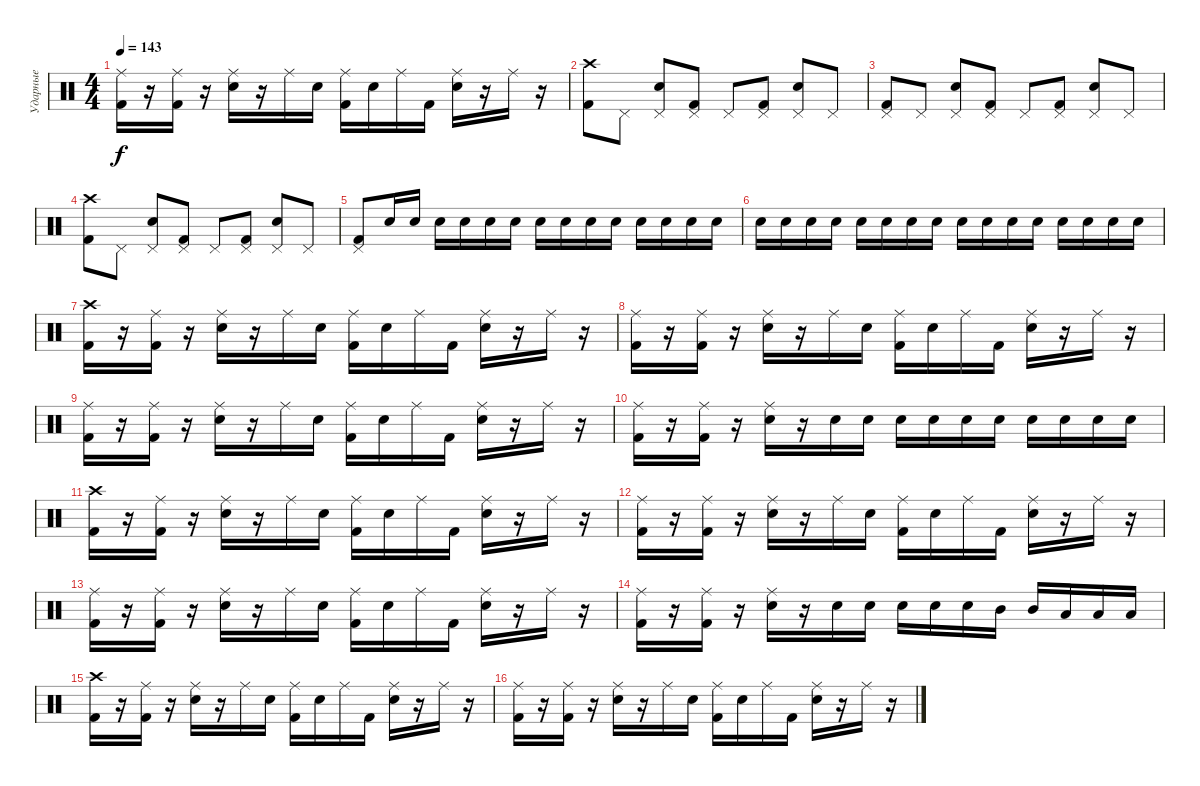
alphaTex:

\track ("Ударные" "Ударные") {instrument percussion}
\staff {score}
\articulation defaults
\ts (4 4)
\tempo 143
\clef neutral
\ks c
("Kick (hit) 2" "Ride (middle)").16{dy f} r.16 ("Kick (hit) 2" "Ride (middle)").16 r.16 ("Electric Snare (hit)" "Ride (middle)").16 r.16 "Ride (middle)".16 "Electric Snare (hit)".16 ("Kick (hit) 2" "Ride (middle)").16 "Electric Snare (hit)".16 "Ride (middle)".16 "Kick (hit) 2".16 ("Electric Snare (hit)" "Ride (middle)").16 r.16 "Ride (middle)".16 r.16 |
("Kick (hit) 2" "Crash high (hit)").8 "Pedal Hi-Hat (hit)".8 ("Electric Snare (hit)" "Pedal Hi-Hat (hit)").8 ("Kick (hit) 2" "Pedal Hi-Hat (hit)").8 "Pedal Hi-Hat (hit)".8 ("Kick (hit) 2" "Pedal Hi-Hat (hit)").8 ("Electric Snare (hit)" "Pedal Hi-Hat (hit)").8 "Pedal Hi-Hat (hit)".8 |
("Kick (hit) 2" "Pedal Hi-Hat (hit)").8 "Pedal Hi-Hat (hit)".8 ("Electric Snare (hit)" "Pedal Hi-Hat (hit)").8 ("Kick (hit) 2" "Pedal Hi-Hat (hit)").8 "Pedal Hi-Hat (hit)".8 ("Kick (hit) 2" "Pedal Hi-Hat (hit)").8 ("Electric Snare (hit)" "Pedal Hi-Hat (hit)").8 "Pedal Hi-Hat (hit)".8 |
("Kick (hit) 2" "Crash high (hit)").8 "Pedal Hi-Hat (hit)".8 ("Electric Snare (hit)" "Pedal Hi-Hat (hit)").8 ("Kick (hit) 2" "Pedal Hi-Hat (hit)").8 "Pedal Hi-Hat (hit)".8 ("Kick (hit) 2" "Pedal Hi-Hat (hit)").8 ("Electric Snare (hit)" "Pedal Hi-Hat (hit)").8 "Pedal Hi-Hat (hit)".8 |
("Kick (hit) 2" "Pedal Hi-Hat (hit)").8 "Electric Snare (hit)".16 "Electric Snare (hit)".16 "Electric Snare (hit)".16 "Electric Snare (hit)".16 "Electric Snare (hit)".16 "Electric Snare (hit)".16 "Electric Snare (hit)".16 "Electric Snare (hit)".16 "Electric Snare (hit)".16 "Electric Snare (hit)".16 "Electric Snare (hit)".16 "Electric Snare (hit)".16 "Electric Snare (hit)".16 "Electric Snare (hit)".16 |
"Electric Snare (hit)".16 "Electric Snare (hit)".16 "Electric Snare (hit)".16 "Electric Snare (hit)".16 "Electric Snare (hit)".16 "Electric Snare (hit)".16 "Electric Snare (hit)".16 "Electric Snare (hit)".16 "Electric Snare (hit)".16 "Electric Snare (hit)".16 "Electric Snare (hit)".16 "Electric Snare (hit)".16 "Electric Snare (hit)".16 "Electric Snare (hit)".16 "Electric Snare (hit)".16 "Electric Snare (hit)".16 |
("Kick (hit) 2" "Crash high (hit)").16 r.16 ("Kick (hit) 2" "Ride (middle)").16 r.16 ("Electric Snare (hit)" "Ride (middle)").16 r.16 "Ride (middle)".16 "Electric Snare (hit)".16 ("Kick (hit) 2" "Ride (middle)").16 "Electric Snare (hit)".16 "Ride (middle)".16 "Kick (hit) 2".16 ("Electric Snare (hit)" "Ride (middle)").16 r.16 "Ride (middle)".16 r.16 |
("Kick (hit) 2" "Ride (middle)").16 r.16 ("Kick (hit) 2" "Ride (middle)").16 r.16 ("Electric Snare (hit)" "Ride (middle)").16 r.16 "Ride (middle)".16 "Electric Snare (hit)".16 ("Kick (hit) 2" "Ride (middle)").16 "Electric Snare (hit)".16 "Ride (middle)".16 "Kick (hit) 2".16 ("Electric Snare (hit)" "Ride (middle)").16 r.16 "Ride (middle)".16 r.16 |
("Kick (hit) 2" "Ride (middle)").16 r.16 ("Kick (hit) 2" "Ride (middle)").16 r.16 ("Electric Snare (hit)" "Ride (middle)").16 r.16 "Ride (middle)".16 "Electric Snare (hit)".16 ("Kick (hit) 2" "Ride (middle)").16 "Electric Snare (hit)".16 "Ride (middle)".16 "Kick (hit) 2".16 ("Electric Snare (hit)" "Ride (middle)").16 r.16 "Ride (middle)".16 r.16 |
("Kick (hit) 2" "Ride (middle)").16 r.16 ("Kick (hit) 2" "Ride (middle)").16 r.16 ("Electric Snare (hit)" "Ride (middle)").16 r.16 "Electric Snare (hit)".16 "Electric Snare (hit)".16 "Electric Snare (hit)".16 "Electric Snare (hit)".16 "Electric Snare (hit)".16 "Electric Snare (hit)".16 "Electric Snare (hit)".16 "Electric Snare (hit)".16 "Electric Snare (hit)".16 "Electric Snare (hit)".16 |
("Kick (hit) 2" "Crash high (hit)").16 r.16 ("Kick (hit) 2" "Ride (middle)").16 r.16 ("Electric Snare (hit)" "Ride (middle)").16 r.16 "Ride (middle)".16 "Electric Snare (hit)".16 ("Kick (hit) 2" "Ride (middle)").16 "Electric Snare (hit)".16 "Ride (middle)".16 "Kick (hit) 2".16 ("Electric Snare (hit)" "Ride (middle)").16 r.16 "Ride (middle)".16 r.16 |
("Kick (hit) 2" "Ride (middle)").16 r.16 ("Kick (hit) 2" "Ride (middle)").16 r.16 ("Electric Snare (hit)" "Ride (middle)").16 r.16 "Ride (middle)".16 "Electric Snare (hit)".16 ("Kick (hit) 2" "Ride (middle)").16 "Electric Snare (hit)".16 "Ride (middle)".16 "Kick (hit) 2".16 ("Electric Snare (hit)" "Ride (middle)").16 r.16 "Ride (middle)".16 r.16 |
("Kick (hit) 2" "Ride (middle)").16 r.16 ("Kick (hit) 2" "Ride (middle)").16 r.16 ("Electric Snare (hit)" "Ride (middle)").16 r.16 "Ride (middle)".16 "Electric Snare (hit)".16 ("Kick (hit) 2" "Ride (middle)").16 "Electric Snare (hit)".16 "Ride (middle)".16 "Kick (hit) 2".16 ("Electric Snare (hit)" "Ride (middle)").16 r.16 "Ride (middle)".16 r.16 |
("Kick (hit) 2" "Ride (middle)").16 r.16 ("Kick (hit) 2" "Ride (middle)").16 r.16 ("Electric Snare (hit)" "Ride (middle)").16 r.16 "Electric Snare (hit)".16 "Electric Snare (hit)".16 "Electric Snare (hit)".16 "Electric Snare (hit)".16 "Electric Snare (hit)".16 "Mid Tom (hit)".16 "Mid Tom (hit)".16 "Low Tom (hit)".16 "Low Tom (hit)".16 "Low Tom (hit)".16 |
("Kick (hit) 2" "Crash high (hit)").16 r.16 ("Kick (hit) 2" "Ride (middle)").16 r.16 ("Electric Snare (hit)" "Ride (middle)").16 r.16 "Ride (middle)".16 "Electric Snare (hit)".16 ("Kick (hit) 2" "Ride (middle)").16 "Electric Snare (hit)".16 "Ride (middle)".16 "Kick (hit) 2".16 ("Electric Snare (hit)" "Ride (middle)").16 r.16 "Ride (middle)".16 r.16 |
("Kick (hit) 2" "Ride (middle)").16 r.16 ("Kick (hit) 2" "Ride (middle)").16 r.16 ("Electric Snare (hit)" "Ride (middle)").16 r.16 "Ride (middle)".16 "Electric Snare (hit)".16 ("Kick (hit) 2" "Ride (middle)").16 "Electric Snare (hit)".16 "Ride (middle)".16 "Kick (hit) 2".16 ("Electric Snare (hit)" "Ride (middle)").16 r.16 "Ride (middle)".16 r.16
